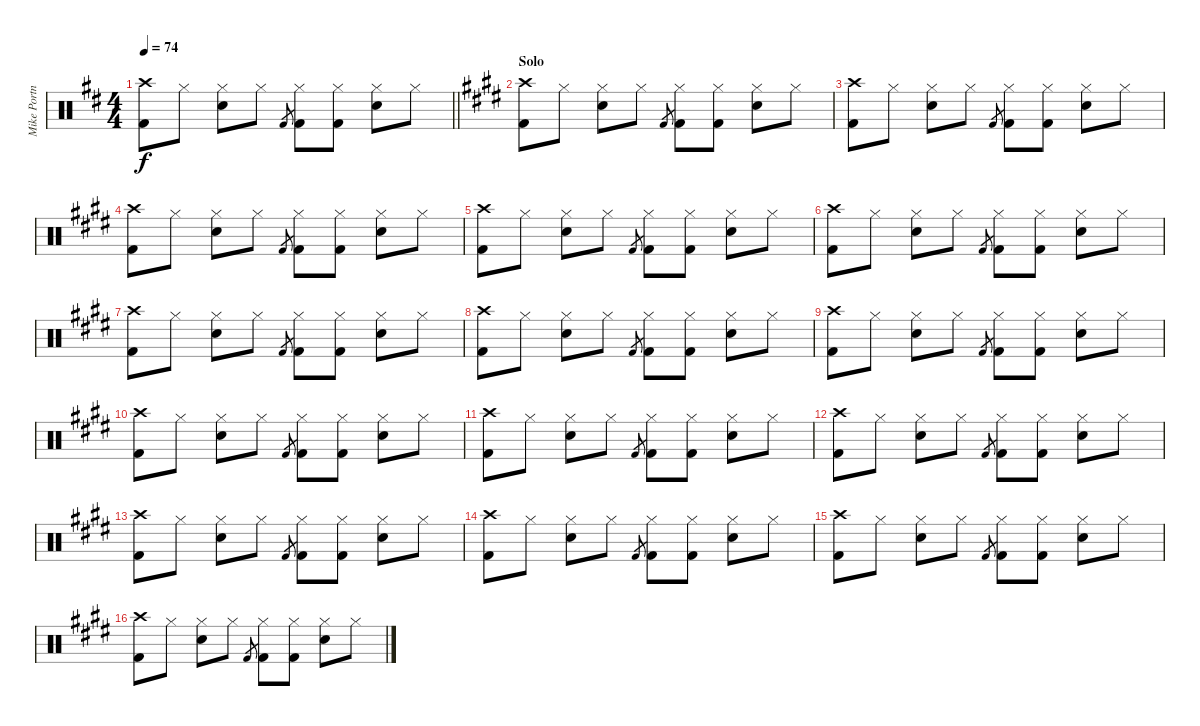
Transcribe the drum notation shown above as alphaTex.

\track ("Mike Portnoy" "Mike Portn") {instrument percussion}
\staff {score}
\articulation defaults
\ts (4 4)
\tempo 74
\clef neutral
\barLineRight lightlight
\ks bminor
("Crash high (hit)" "Kick (hit) 2").8{dy f} "Hi-Hat (closed)".8 ("Hi-Hat (closed)" "Snare (hit) 2").8 "Hi-Hat (closed)".8 "Kick (hit) 2".8{gr} ("Hi-Hat (closed)" "Kick (hit) 2").8 ("Hi-Hat (closed)" "Kick (hit) 2").8 ("Hi-Hat (closed)" "Snare (hit) 2").8 "Hi-Hat (closed)".8 |
\section ("" "Solo")
\ks e
("Crash high (hit)" "Kick (hit) 2").8 "Hi-Hat (closed)".8 ("Hi-Hat (closed)" "Snare (hit) 2").8 "Hi-Hat (closed)".8 "Kick (hit) 2".8{gr} ("Hi-Hat (closed)" "Kick (hit) 2").8 ("Hi-Hat (closed)" "Kick (hit) 2").8 ("Hi-Hat (closed)" "Snare (hit) 2").8 "Hi-Hat (closed)".8 |
("Crash high (hit)" "Kick (hit) 2").8 "Hi-Hat (closed)".8 ("Hi-Hat (closed)" "Snare (hit) 2").8 "Hi-Hat (closed)".8 "Kick (hit) 2".8{gr} ("Hi-Hat (closed)" "Kick (hit) 2").8 ("Hi-Hat (closed)" "Kick (hit) 2").8 ("Hi-Hat (closed)" "Snare (hit) 2").8 "Hi-Hat (closed)".8 |
("Crash high (hit)" "Kick (hit) 2").8 "Hi-Hat (closed)".8 ("Hi-Hat (closed)" "Snare (hit) 2").8 "Hi-Hat (closed)".8 "Kick (hit) 2".8{gr} ("Hi-Hat (closed)" "Kick (hit) 2").8 ("Hi-Hat (closed)" "Kick (hit) 2").8 ("Hi-Hat (closed)" "Snare (hit) 2").8 "Hi-Hat (closed)".8 |
("Crash high (hit)" "Kick (hit) 2").8 "Hi-Hat (closed)".8 ("Hi-Hat (closed)" "Snare (hit) 2").8 "Hi-Hat (closed)".8 "Kick (hit) 2".8{gr} ("Hi-Hat (closed)" "Kick (hit) 2").8 ("Hi-Hat (closed)" "Kick (hit) 2").8 ("Hi-Hat (closed)" "Snare (hit) 2").8 "Hi-Hat (closed)".8 |
("Crash high (hit)" "Kick (hit) 2").8 "Hi-Hat (closed)".8 ("Hi-Hat (closed)" "Snare (hit) 2").8 "Hi-Hat (closed)".8 "Kick (hit) 2".8{gr} ("Hi-Hat (closed)" "Kick (hit) 2").8 ("Hi-Hat (closed)" "Kick (hit) 2").8 ("Hi-Hat (closed)" "Snare (hit) 2").8 "Hi-Hat (closed)".8 |
("Crash high (hit)" "Kick (hit) 2").8 "Hi-Hat (closed)".8 ("Hi-Hat (closed)" "Snare (hit) 2").8 "Hi-Hat (closed)".8 "Kick (hit) 2".8{gr} ("Hi-Hat (closed)" "Kick (hit) 2").8 ("Hi-Hat (closed)" "Kick (hit) 2").8 ("Hi-Hat (closed)" "Snare (hit) 2").8 "Hi-Hat (closed)".8 |
("Crash high (hit)" "Kick (hit) 2").8 "Hi-Hat (closed)".8 ("Hi-Hat (closed)" "Snare (hit) 2").8 "Hi-Hat (closed)".8 "Kick (hit) 2".8{gr} ("Hi-Hat (closed)" "Kick (hit) 2").8 ("Hi-Hat (closed)" "Kick (hit) 2").8 ("Hi-Hat (closed)" "Snare (hit) 2").8 "Hi-Hat (closed)".8 |
("Crash high (hit)" "Kick (hit) 2").8 "Hi-Hat (closed)".8 ("Hi-Hat (closed)" "Snare (hit) 2").8 "Hi-Hat (closed)".8 "Kick (hit) 2".8{gr} ("Hi-Hat (closed)" "Kick (hit) 2").8 ("Hi-Hat (closed)" "Kick (hit) 2").8 ("Hi-Hat (closed)" "Snare (hit) 2").8 "Hi-Hat (closed)".8 |
("Crash high (hit)" "Kick (hit) 2").8 "Hi-Hat (closed)".8 ("Hi-Hat (closed)" "Snare (hit) 2").8 "Hi-Hat (closed)".8 "Kick (hit) 2".8{gr} ("Hi-Hat (closed)" "Kick (hit) 2").8 ("Hi-Hat (closed)" "Kick (hit) 2").8 ("Hi-Hat (closed)" "Snare (hit) 2").8 "Hi-Hat (closed)".8 |
("Crash high (hit)" "Kick (hit) 2").8 "Hi-Hat (closed)".8 ("Hi-Hat (closed)" "Snare (hit) 2").8 "Hi-Hat (closed)".8 "Kick (hit) 2".8{gr} ("Hi-Hat (closed)" "Kick (hit) 2").8 ("Hi-Hat (closed)" "Kick (hit) 2").8 ("Hi-Hat (closed)" "Snare (hit) 2").8 "Hi-Hat (closed)".8 |
("Crash high (hit)" "Kick (hit) 2").8 "Hi-Hat (closed)".8 ("Hi-Hat (closed)" "Snare (hit) 2").8 "Hi-Hat (closed)".8 "Kick (hit) 2".8{gr} ("Hi-Hat (closed)" "Kick (hit) 2").8 ("Hi-Hat (closed)" "Kick (hit) 2").8 ("Hi-Hat (closed)" "Snare (hit) 2").8 "Hi-Hat (closed)".8 |
("Crash high (hit)" "Kick (hit) 2").8 "Hi-Hat (closed)".8 ("Hi-Hat (closed)" "Snare (hit) 2").8 "Hi-Hat (closed)".8 "Kick (hit) 2".8{gr} ("Hi-Hat (closed)" "Kick (hit) 2").8 ("Hi-Hat (closed)" "Kick (hit) 2").8 ("Hi-Hat (closed)" "Snare (hit) 2").8 "Hi-Hat (closed)".8 |
("Crash high (hit)" "Kick (hit) 2").8 "Hi-Hat (closed)".8 ("Hi-Hat (closed)" "Snare (hit) 2").8 "Hi-Hat (closed)".8 "Kick (hit) 2".8{gr} ("Hi-Hat (closed)" "Kick (hit) 2").8 ("Hi-Hat (closed)" "Kick (hit) 2").8 ("Hi-Hat (closed)" "Snare (hit) 2").8 "Hi-Hat (closed)".8 |
("Crash high (hit)" "Kick (hit) 2").8 "Hi-Hat (closed)".8 ("Hi-Hat (closed)" "Snare (hit) 2").8 "Hi-Hat (closed)".8 "Kick (hit) 2".8{gr} ("Hi-Hat (closed)" "Kick (hit) 2").8 ("Hi-Hat (closed)" "Kick (hit) 2").8 ("Hi-Hat (closed)" "Snare (hit) 2").8 "Hi-Hat (closed)".8 |
("Crash high (hit)" "Kick (hit) 2").8 "Hi-Hat (closed)".8 ("Hi-Hat (closed)" "Snare (hit) 2").8 "Hi-Hat (closed)".8 "Kick (hit) 2".8{gr} ("Hi-Hat (closed)" "Kick (hit) 2").8 ("Hi-Hat (closed)" "Kick (hit) 2").8 ("Hi-Hat (closed)" "Snare (hit) 2").8 "Hi-Hat (closed)".8
